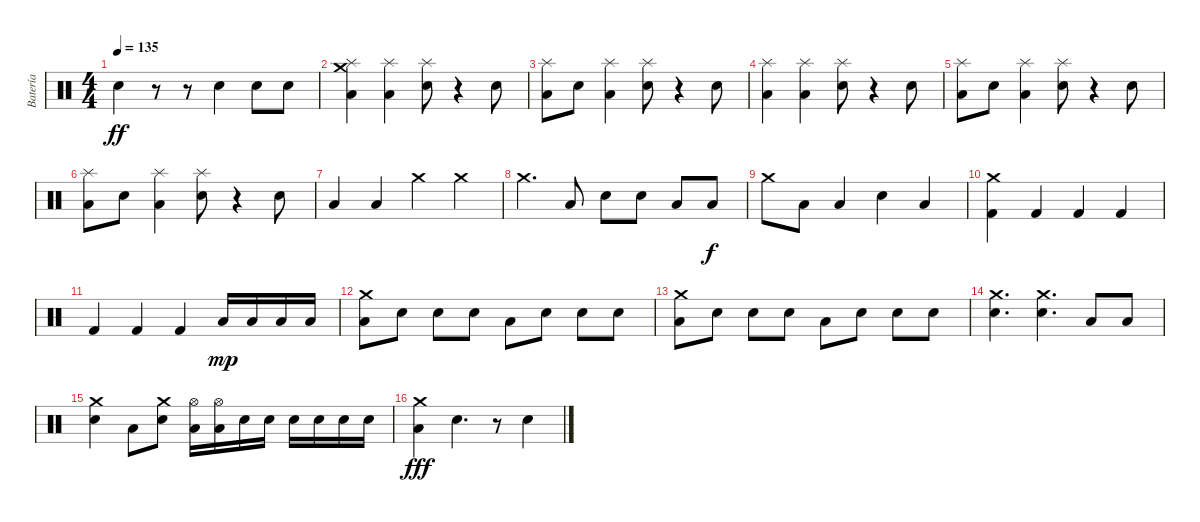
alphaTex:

\track ("Batería" "Batería") {instrument percussion}
\staff {score}
\articulation defaults
\ts (4 4)
\tempo 135
\clef neutral
\ks c "Electric Snare (hit)".4{dy ff}
r.8 r.8 "Electric Snare (hit)".4 "Electric Snare (hit)".8 "Electric Snare (hit)".8 |
("Crash medium (hit)" "Splash (hit)" "Low Floor Tom (hit)").4 ("Splash (hit)" "Low Floor Tom (hit)").4 ("Splash (hit)" "Electric Snare (hit)").8 r.4 "Electric Snare (hit)".8 |
("Splash (hit)" "Low Floor Tom (hit)").8 "Electric Snare (hit)".8 ("Splash (hit)" "Low Floor Tom (hit)").4 ("Splash (hit)" "Electric Snare (hit)").8 r.4 "Electric Snare (hit)".8 |
("Splash (hit)" "Low Floor Tom (hit)").4 ("Splash (hit)" "Low Floor Tom (hit)").4 ("Splash (hit)" "Electric Snare (hit)").8 r.4 "Electric Snare (hit)".8 |
("Splash (hit)" "Low Floor Tom (hit)").8 "Electric Snare (hit)".8 ("Splash (hit)" "Low Floor Tom (hit)").4 ("Splash (hit)" "Electric Snare (hit)").8 r.4 "Electric Snare (hit)".8 |
("Splash (hit)" "Low Floor Tom (hit)").8 "Electric Snare (hit)".8 ("Splash (hit)" "Low Floor Tom (hit)").4 ("Splash (hit)" "Electric Snare (hit)").8 r.4 "Electric Snare (hit)".8 |
"Low Floor Tom (hit)".4 "Low Floor Tom (hit)".4 "Crash medium (hit)".4 "Crash medium (hit)".4 |
"Crash medium (hit)".4{d} "Low Floor Tom (hit)".8 "Electric Snare (hit)".8 "Electric Snare (hit)".8 "Low Floor Tom (hit)".8 "Low Floor Tom (hit)".8{dy f} |
"Crash medium (hit)".8 "Low Floor Tom (hit)".8 "Low Floor Tom (hit)".4 "Electric Snare (hit)".4 "Low Floor Tom (hit)".4 |
("Crash medium (hit)" "Kick (hit) 2").4 "Kick (hit) 2".4 "Kick (hit) 2".4 "Kick (hit) 2".4 |
"Kick (hit) 2".4 "Kick (hit) 2".4 "Kick (hit) 2".4 "Low Floor Tom (hit)".16{dy mp} "Low Floor Tom (hit)".16 "Low Floor Tom (hit)".16 "Low Floor Tom (hit)".16 |
("Crash medium (hit)" "Low Floor Tom (hit)").8 "Electric Snare (hit)".8 "Electric Snare (hit)".8 "Electric Snare (hit)".8 "Low Floor Tom (hit)".8 "Electric Snare (hit)".8 "Electric Snare (hit)".8 "Electric Snare (hit)".8 |
("Crash medium (hit)" "Low Floor Tom (hit)").8 "Electric Snare (hit)".8 "Electric Snare (hit)".8 "Electric Snare (hit)".8 "Low Floor Tom (hit)".8 "Electric Snare (hit)".8 "Electric Snare (hit)".8 "Electric Snare (hit)".8 |
("Crash medium (hit)" "Electric Snare (hit)").4{d} ("Crash medium (hit)" "Electric Snare (hit)").4{d} "Low Floor Tom (hit)".8 "Low Floor Tom (hit)".8 |
("Crash medium (hit)" "Electric Snare (hit)").4 "Low Floor Tom (hit)".8 ("Crash medium (hit)" "Electric Snare (hit)").8 ("Hi-Hat (open)" "Low Floor Tom (hit)").16 ("Hi-Hat (open)" "Low Floor Tom (hit)").16 "Electric Snare (hit)".16 "Electric Snare (hit)".16 "Electric Snare (hit)".16 "Electric Snare (hit)".16 "Electric Snare (hit)".16 "Electric Snare (hit)".16 |
("Crash medium (hit)" "Low Floor Tom (hit)").4{dy fff} "Electric Snare (hit)".4{d} r.8 "Electric Snare (hit)".4
